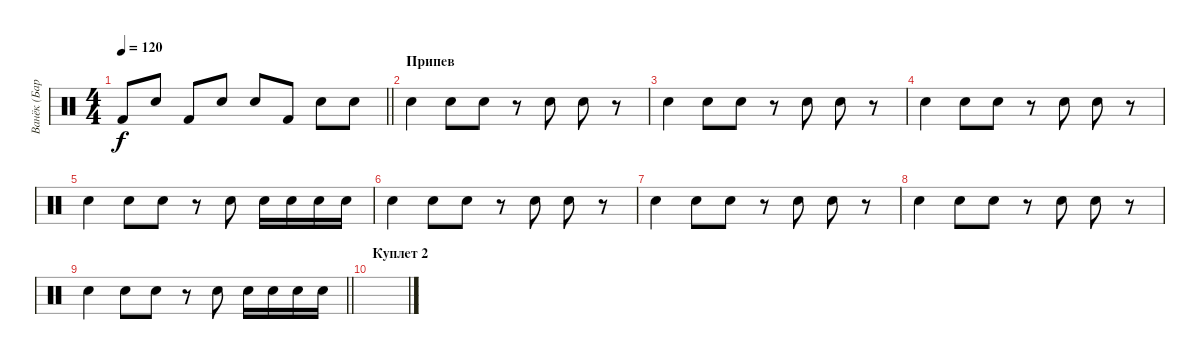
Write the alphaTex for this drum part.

\track ("Ванёк (Барабанщик)" "Ванёк (Бар") {instrument percussion}
\staff {score}
\articulation defaults
\ts (4 4)
\tempo 120
\clef neutral
\barLineRight lightlight
\ks c "Kick (hit) 2".8{dy f} "Electric Snare (hit)".8 "Kick (hit) 2".8 "Electric Snare (hit)".8 "Electric Snare (hit)".8 "Kick (hit) 2".8 "Electric Snare (hit)".8 "Electric Snare (hit)".8
|
\section ("" "Припев")
"Electric Snare (hit)".4 "Electric Snare (hit)".8 "Electric Snare (hit)".8 r.8 "Electric Snare (hit)".8 "Electric Snare (hit)".8 r.8 |
"Electric Snare (hit)".4 "Electric Snare (hit)".8 "Electric Snare (hit)".8 r.8 "Electric Snare (hit)".8 "Electric Snare (hit)".8 r.8 |
"Electric Snare (hit)".4 "Electric Snare (hit)".8 "Electric Snare (hit)".8 r.8 "Electric Snare (hit)".8 "Electric Snare (hit)".8 r.8 |
"Electric Snare (hit)".4 "Electric Snare (hit)".8 "Electric Snare (hit)".8 r.8 "Electric Snare (hit)".8 "Electric Snare (hit)".16 "Electric Snare (hit)".16 "Electric Snare (hit)".16 "Electric Snare (hit)".16 |
"Electric Snare (hit)".4 "Electric Snare (hit)".8 "Electric Snare (hit)".8 r.8 "Electric Snare (hit)".8 "Electric Snare (hit)".8 r.8 |
"Electric Snare (hit)".4 "Electric Snare (hit)".8 "Electric Snare (hit)".8 r.8 "Electric Snare (hit)".8 "Electric Snare (hit)".8 r.8 |
"Electric Snare (hit)".4 "Electric Snare (hit)".8 "Electric Snare (hit)".8 r.8 "Electric Snare (hit)".8 "Electric Snare (hit)".8 r.8 |
\barLineRight lightlight "Electric Snare (hit)".4 "Electric Snare (hit)".8 "Electric Snare (hit)".8
r.8 "Electric Snare (hit)".8 "Electric Snare (hit)".16 "Electric Snare (hit)".16 "Electric Snare (hit)".16 "Electric Snare (hit)".16 |
\section ("" "Куплет 2")
